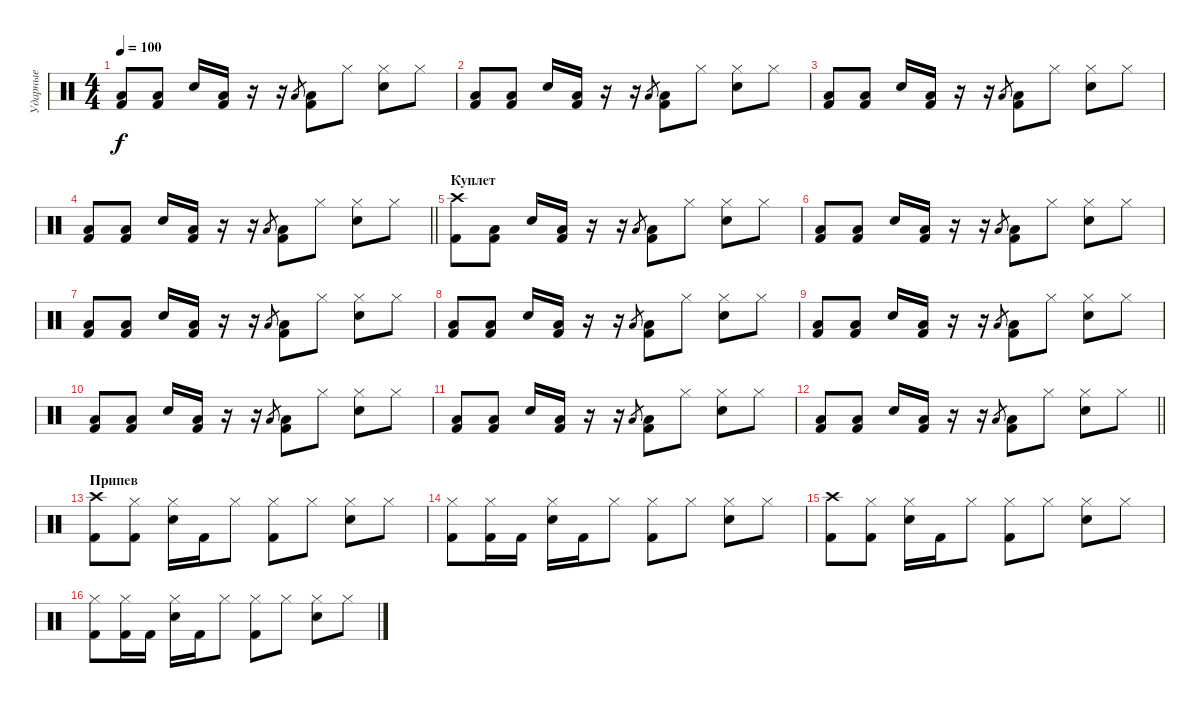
\track ("Ударные" "Ударные") {instrument percussion}
\staff {score}
\articulation defaults
\ts (4 4)
\tempo 100
\clef neutral
\ks c
("Low Floor Tom (hit)" "Kick (hit) 2").8{dy f} ("Low Floor Tom (hit)" "Kick (hit) 2").8 "Snare (hit) 2".16 ("Low Floor Tom (hit)" "Kick (hit) 2").16 r.16 r.16 "Low Floor Tom (hit)".8{gr} ("Low Floor Tom (hit)" "Kick (hit) 2").8 "Hi-Hat (closed)".8 ("Hi-Hat (closed)" "Snare (hit) 2").8 "Hi-Hat (closed)".8 |
("Low Floor Tom (hit)" "Kick (hit) 2").8 ("Low Floor Tom (hit)" "Kick (hit) 2").8 "Snare (hit) 2".16 ("Low Floor Tom (hit)" "Kick (hit) 2").16 r.16 r.16 "Low Floor Tom (hit)".8{gr} ("Low Floor Tom (hit)" "Kick (hit) 2").8 "Hi-Hat (closed)".8 ("Hi-Hat (closed)" "Snare (hit) 2").8 "Hi-Hat (closed)".8 |
("Low Floor Tom (hit)" "Kick (hit) 2").8 ("Low Floor Tom (hit)" "Kick (hit) 2").8 "Snare (hit) 2".16 ("Low Floor Tom (hit)" "Kick (hit) 2").16 r.16 r.16 "Low Floor Tom (hit)".8{gr} ("Low Floor Tom (hit)" "Kick (hit) 2").8 "Hi-Hat (closed)".8 ("Hi-Hat (closed)" "Snare (hit) 2").8 "Hi-Hat (closed)".8 |
\barLineRight lightlight
("Low Floor Tom (hit)" "Kick (hit) 2").8 ("Low Floor Tom (hit)" "Kick (hit) 2").8 "Snare (hit) 2".16 ("Low Floor Tom (hit)" "Kick (hit) 2").16 r.16 r.16 "Low Floor Tom (hit)".8{gr} ("Low Floor Tom (hit)" "Kick (hit) 2").8 "Hi-Hat (closed)".8 ("Hi-Hat (closed)" "Snare (hit) 2").8 "Hi-Hat (closed)".8 |
\section ("" "Куплет")
("Crash high (hit)" "Kick (hit) 2").8 ("Low Floor Tom (hit)" "Kick (hit) 2").8 "Snare (hit) 2".16 ("Low Floor Tom (hit)" "Kick (hit) 2").16 r.16 r.16 "Low Floor Tom (hit)".8{gr} ("Low Floor Tom (hit)" "Kick (hit) 2").8 "Hi-Hat (closed)".8 ("Hi-Hat (closed)" "Snare (hit) 2").8 "Hi-Hat (closed)".8 |
("Low Floor Tom (hit)" "Kick (hit) 2").8 ("Low Floor Tom (hit)" "Kick (hit) 2").8 "Snare (hit) 2".16 ("Low Floor Tom (hit)" "Kick (hit) 2").16 r.16 r.16 "Low Floor Tom (hit)".8{gr} ("Low Floor Tom (hit)" "Kick (hit) 2").8 "Hi-Hat (closed)".8 ("Hi-Hat (closed)" "Snare (hit) 2").8 "Hi-Hat (closed)".8 |
("Low Floor Tom (hit)" "Kick (hit) 2").8 ("Low Floor Tom (hit)" "Kick (hit) 2").8 "Snare (hit) 2".16 ("Low Floor Tom (hit)" "Kick (hit) 2").16 r.16 r.16 "Low Floor Tom (hit)".8{gr} ("Low Floor Tom (hit)" "Kick (hit) 2").8 "Hi-Hat (closed)".8 ("Hi-Hat (closed)" "Snare (hit) 2").8 "Hi-Hat (closed)".8 |
("Low Floor Tom (hit)" "Kick (hit) 2").8 ("Low Floor Tom (hit)" "Kick (hit) 2").8 "Snare (hit) 2".16 ("Low Floor Tom (hit)" "Kick (hit) 2").16 r.16 r.16 "Low Floor Tom (hit)".8{gr} ("Low Floor Tom (hit)" "Kick (hit) 2").8 "Hi-Hat (closed)".8 ("Hi-Hat (closed)" "Snare (hit) 2").8 "Hi-Hat (closed)".8 |
("Low Floor Tom (hit)" "Kick (hit) 2").8 ("Low Floor Tom (hit)" "Kick (hit) 2").8 "Snare (hit) 2".16 ("Low Floor Tom (hit)" "Kick (hit) 2").16 r.16 r.16 "Low Floor Tom (hit)".8{gr} ("Low Floor Tom (hit)" "Kick (hit) 2").8 "Hi-Hat (closed)".8 ("Hi-Hat (closed)" "Snare (hit) 2").8 "Hi-Hat (closed)".8 |
("Low Floor Tom (hit)" "Kick (hit) 2").8 ("Low Floor Tom (hit)" "Kick (hit) 2").8 "Snare (hit) 2".16 ("Low Floor Tom (hit)" "Kick (hit) 2").16 r.16 r.16 "Low Floor Tom (hit)".8{gr} ("Low Floor Tom (hit)" "Kick (hit) 2").8 "Hi-Hat (closed)".8 ("Hi-Hat (closed)" "Snare (hit) 2").8 "Hi-Hat (closed)".8 |
("Low Floor Tom (hit)" "Kick (hit) 2").8 ("Low Floor Tom (hit)" "Kick (hit) 2").8 "Snare (hit) 2".16 ("Low Floor Tom (hit)" "Kick (hit) 2").16 r.16 r.16 "Low Floor Tom (hit)".8{gr} ("Low Floor Tom (hit)" "Kick (hit) 2").8 "Hi-Hat (closed)".8 ("Hi-Hat (closed)" "Snare (hit) 2").8 "Hi-Hat (closed)".8 |
\barLineRight lightlight
("Low Floor Tom (hit)" "Kick (hit) 2").8 ("Low Floor Tom (hit)" "Kick (hit) 2").8 "Snare (hit) 2".16 ("Low Floor Tom (hit)" "Kick (hit) 2").16 r.16 r.16 "Low Floor Tom (hit)".8{gr} ("Low Floor Tom (hit)" "Kick (hit) 2").8 "Hi-Hat (closed)".8 ("Hi-Hat (closed)" "Snare (hit) 2").8 "Hi-Hat (closed)".8 |
\section ("" "Припев")
("Crash high (hit)" "Kick (hit) 2").8 ("Hi-Hat (closed)" "Kick (hit) 2").8 ("Hi-Hat (closed)" "Snare (hit) 2").16 "Kick (hit) 2".16 "Hi-Hat (closed)".8 ("Hi-Hat (closed)" "Kick (hit) 2").8 "Hi-Hat (closed)".8 ("Hi-Hat (closed)" "Snare (hit) 2").8 "Hi-Hat (closed)".8 |
("Hi-Hat (closed)" "Kick (hit) 2").8 ("Hi-Hat (closed)" "Kick (hit) 2").16 "Kick (hit) 2".16 ("Hi-Hat (closed)" "Snare (hit) 2").16 "Kick (hit) 2".16 "Hi-Hat (closed)".8 ("Hi-Hat (closed)" "Kick (hit) 2").8 "Hi-Hat (closed)".8 ("Hi-Hat (closed)" "Snare (hit) 2").8 "Hi-Hat (closed)".8 |
("Crash high (hit)" "Kick (hit) 2").8 ("Hi-Hat (closed)" "Kick (hit) 2").8 ("Hi-Hat (closed)" "Snare (hit) 2").16 "Kick (hit) 2".16 "Hi-Hat (closed)".8 ("Hi-Hat (closed)" "Kick (hit) 2").8 "Hi-Hat (closed)".8 ("Hi-Hat (closed)" "Snare (hit) 2").8 "Hi-Hat (closed)".8 |
("Hi-Hat (closed)" "Kick (hit) 2").8 ("Hi-Hat (closed)" "Kick (hit) 2").16 "Kick (hit) 2".16 ("Hi-Hat (closed)" "Snare (hit) 2").16 "Kick (hit) 2".16 "Hi-Hat (closed)".8 ("Hi-Hat (closed)" "Kick (hit) 2").8 "Hi-Hat (closed)".8 ("Hi-Hat (closed)" "Snare (hit) 2").8 "Hi-Hat (closed)".8
